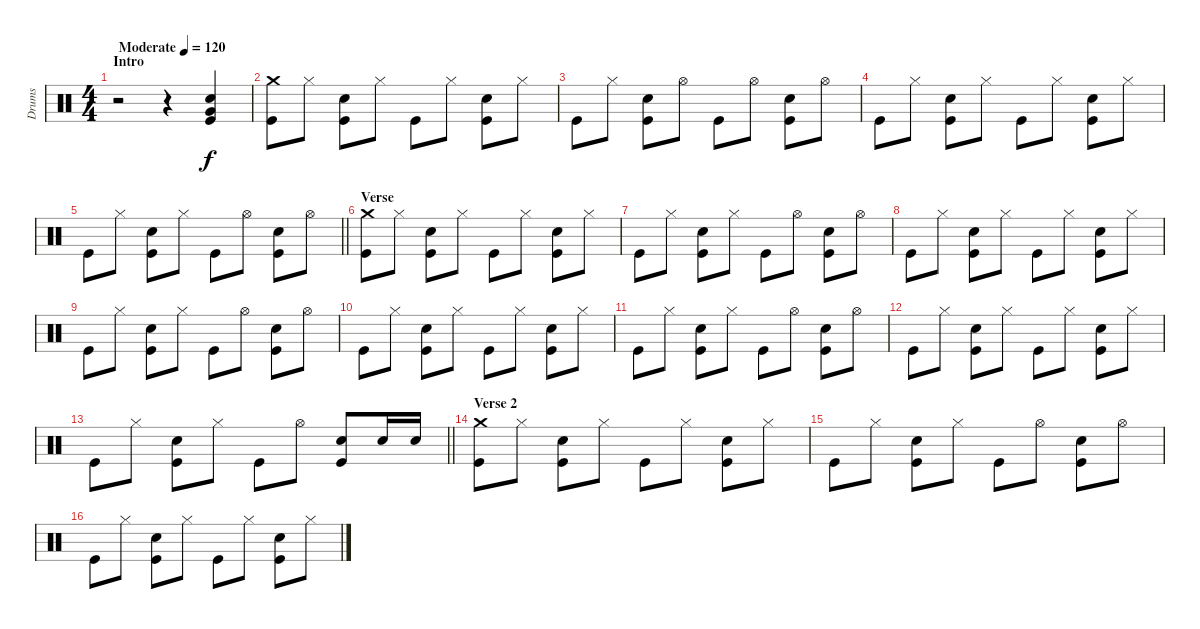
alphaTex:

\track ("Drums" "Drums") {instrument percussion}
\staff {score}
\articulation defaults
\ts (4 4)
\section ("" "Intro")
\tempo (120 "Moderate")
\clef neutral
\ks c
r.2{dy f} r.4 ("Snare (hit) 2" "Very Low Tom (hit)" "Kick (hit)").4 |
("Crash medium (hit)" "Kick (hit)").8 "Hi-Hat (closed)".8 ("Kick (hit)" "Snare (hit) 2").8 "Hi-Hat (closed)".8 "Kick (hit)".8 "Hi-Hat (closed)".8 ("Kick (hit)" "Snare (hit) 2").8 "Hi-Hat (closed)".8 |
"Kick (hit)".8 "Hi-Hat (closed)".8 ("Kick (hit)" "Snare (hit) 2").8 "Hi-Hat (open)".8 "Kick (hit)".8 "Hi-Hat (open)".8 ("Kick (hit)" "Snare (hit) 2").8 "Hi-Hat (open)".8 |
"Kick (hit)".8 "Hi-Hat (closed)".8 ("Kick (hit)" "Snare (hit) 2").8 "Hi-Hat (closed)".8 "Kick (hit)".8 "Hi-Hat (closed)".8 ("Kick (hit)" "Snare (hit) 2").8 "Hi-Hat (closed)".8 |
\barLineRight lightlight "Kick (hit)".8 "Hi-Hat (closed)".8
("Kick (hit)" "Snare (hit) 2").8 "Hi-Hat (closed)".8 "Kick (hit)".8 "Hi-Hat (open)".8 ("Kick (hit)" "Snare (hit) 2").8 "Hi-Hat (open)".8 |
\section ("" "Verse")
("Crash medium (hit)" "Kick (hit)").8 "Hi-Hat (closed)".8 ("Kick (hit)" "Snare (hit) 2").8 "Hi-Hat (closed)".8 "Kick (hit)".8 "Hi-Hat (closed)".8 ("Kick (hit)" "Snare (hit) 2").8 "Hi-Hat (closed)".8 |
"Kick (hit)".8 "Hi-Hat (closed)".8 ("Kick (hit)" "Snare (hit) 2").8 "Hi-Hat (closed)".8 "Kick (hit)".8 "Hi-Hat (open)".8 ("Kick (hit)" "Snare (hit) 2").8 "Hi-Hat (open)".8 |
"Kick (hit)".8 "Hi-Hat (closed)".8 ("Kick (hit)" "Snare (hit) 2").8 "Hi-Hat (closed)".8 "Kick (hit)".8 "Hi-Hat (closed)".8 ("Kick (hit)" "Snare (hit) 2").8 "Hi-Hat (closed)".8 |
"Kick (hit)".8 "Hi-Hat (closed)".8 ("Kick (hit)" "Snare (hit) 2").8 "Hi-Hat (closed)".8 "Kick (hit)".8 "Hi-Hat (open)".8 ("Kick (hit)" "Snare (hit) 2").8 "Hi-Hat (open)".8 |
"Kick (hit)".8 "Hi-Hat (closed)".8 ("Kick (hit)" "Snare (hit) 2").8 "Hi-Hat (closed)".8 "Kick (hit)".8 "Hi-Hat (closed)".8 ("Kick (hit)" "Snare (hit) 2").8 "Hi-Hat (closed)".8 |
"Kick (hit)".8 "Hi-Hat (closed)".8 ("Kick (hit)" "Snare (hit) 2").8 "Hi-Hat (closed)".8 "Kick (hit)".8 "Hi-Hat (open)".8 ("Kick (hit)" "Snare (hit) 2").8 "Hi-Hat (open)".8 |
"Kick (hit)".8 "Hi-Hat (closed)".8 ("Kick (hit)" "Snare (hit) 2").8 "Hi-Hat (closed)".8 "Kick (hit)".8 "Hi-Hat (closed)".8 ("Kick (hit)" "Snare (hit) 2").8 "Hi-Hat (closed)".8 |
\barLineRight lightlight "Kick (hit)".8 "Hi-Hat (closed)".8
("Kick (hit)" "Snare (hit) 2").8 "Hi-Hat (closed)".8 "Kick (hit)".8 "Hi-Hat (open)".8 ("Kick (hit)" "Snare (hit) 2").8 "Snare (hit) 2".16 "Snare (hit) 2".16 |
\section ("" "Verse 2")
("Crash medium (hit)" "Kick (hit)").8 "Hi-Hat (closed)".8 ("Kick (hit)" "Snare (hit) 2").8 "Hi-Hat (closed)".8 "Kick (hit)".8 "Hi-Hat (closed)".8 ("Kick (hit)" "Snare (hit) 2").8 "Hi-Hat (closed)".8 |
"Kick (hit)".8 "Hi-Hat (closed)".8 ("Kick (hit)" "Snare (hit) 2").8 "Hi-Hat (closed)".8 "Kick (hit)".8 "Hi-Hat (open)".8 ("Kick (hit)" "Snare (hit) 2").8 "Hi-Hat (open)".8 |
"Kick (hit)".8 "Hi-Hat (closed)".8 ("Kick (hit)" "Snare (hit) 2").8 "Hi-Hat (closed)".8 "Kick (hit)".8 "Hi-Hat (closed)".8 ("Kick (hit)" "Snare (hit) 2").8 "Hi-Hat (closed)".8
